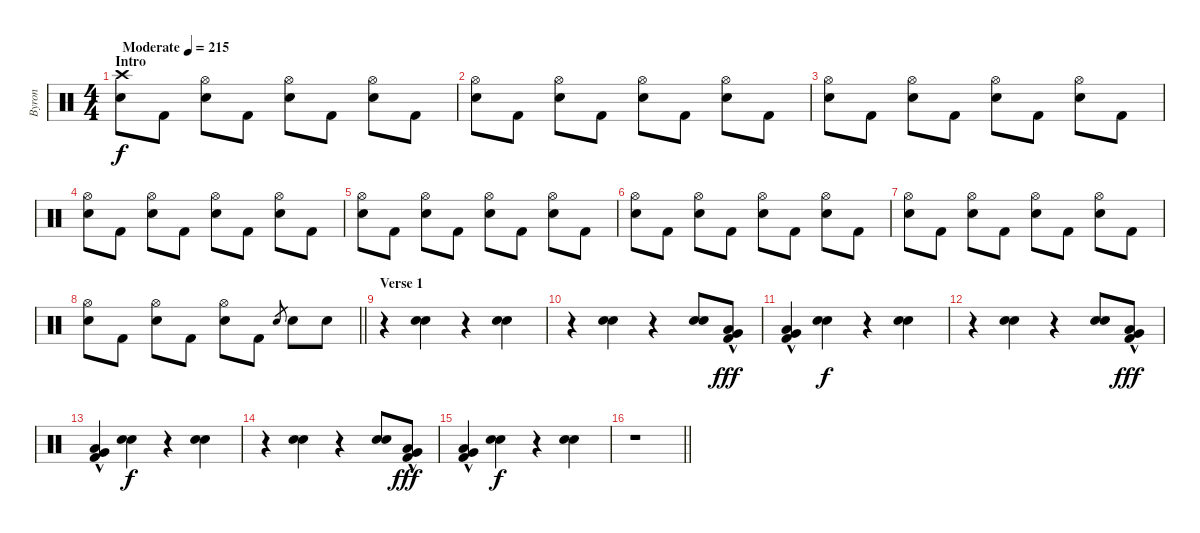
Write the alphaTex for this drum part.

\track ("Byron" "Byron") {instrument percussion}
\staff {score}
\articulation defaults
\ts (4 4)
\section ("" "Intro")
\tempo (215 "Moderate")
\clef neutral
\ks c
("Crash high (hit)" "Electric Snare (hit)").8{dy f} "Kick (hit) 2".8 ("Hi-Hat (open)" "Electric Snare (hit)").8 "Kick (hit) 2".8 ("Hi-Hat (open)" "Electric Snare (hit)").8 "Kick (hit) 2".8 ("Hi-Hat (open)" "Electric Snare (hit)").8 "Kick (hit) 2".8 |
("Hi-Hat (open)" "Electric Snare (hit)").8 "Kick (hit) 2".8 ("Hi-Hat (open)" "Electric Snare (hit)").8 "Kick (hit) 2".8 ("Hi-Hat (open)" "Electric Snare (hit)").8 "Kick (hit) 2".8 ("Hi-Hat (open)" "Electric Snare (hit)").8 "Kick (hit) 2".8 |
("Hi-Hat (open)" "Electric Snare (hit)").8 "Kick (hit) 2".8 ("Hi-Hat (open)" "Electric Snare (hit)").8 "Kick (hit) 2".8 ("Hi-Hat (open)" "Electric Snare (hit)").8 "Kick (hit) 2".8 ("Hi-Hat (open)" "Electric Snare (hit)").8 "Kick (hit) 2".8 |
("Hi-Hat (open)" "Electric Snare (hit)").8 "Kick (hit) 2".8 ("Hi-Hat (open)" "Electric Snare (hit)").8 "Kick (hit) 2".8 ("Hi-Hat (open)" "Electric Snare (hit)").8 "Kick (hit) 2".8 ("Hi-Hat (open)" "Electric Snare (hit)").8 "Kick (hit) 2".8 |
("Hi-Hat (open)" "Electric Snare (hit)").8 "Kick (hit) 2".8 ("Hi-Hat (open)" "Electric Snare (hit)").8 "Kick (hit) 2".8 ("Hi-Hat (open)" "Electric Snare (hit)").8 "Kick (hit) 2".8 ("Hi-Hat (open)" "Electric Snare (hit)").8 "Kick (hit) 2".8 |
("Hi-Hat (open)" "Electric Snare (hit)").8 "Kick (hit) 2".8 ("Hi-Hat (open)" "Electric Snare (hit)").8 "Kick (hit) 2".8 ("Hi-Hat (open)" "Electric Snare (hit)").8 "Kick (hit) 2".8 ("Hi-Hat (open)" "Electric Snare (hit)").8 "Kick (hit) 2".8 |
("Hi-Hat (open)" "Electric Snare (hit)").8 "Kick (hit) 2".8 ("Hi-Hat (open)" "Electric Snare (hit)").8 "Kick (hit) 2".8 ("Hi-Hat (open)" "Electric Snare (hit)").8 "Kick (hit) 2".8 ("Hi-Hat (open)" "Electric Snare (hit)").8 "Kick (hit) 2".8 |
\barLineRight lightlight
("Hi-Hat (open)" "Electric Snare (hit)").8 "Kick (hit) 2".8 ("Hi-Hat (open)" "Electric Snare (hit)").8 "Kick (hit) 2".8 ("Hi-Hat (open)" "Electric Snare (hit)").8 "Kick (hit) 2".8 "Electric Snare (hit)".8{gr} "Electric Snare (hit)".8 "Electric Snare (hit)".8 |
\section ("" "Verse 1")
r.4 ("Electric Snare (hit)" "Electric Snare (hit)").4 r.4 ("Electric Snare (hit)" "Electric Snare (hit)").4 |
r.4 ("Electric Snare (hit)" "Electric Snare (hit)").4 r.4 ("Electric Snare (hit)" "Electric Snare (hit)").8 ("Low Tom (hit)"{hac} "Very Low Tom (hit)"{hac} "Kick (hit) 2"{hac}).8{dy fff} |
("Low Tom (hit)"{hac} "Very Low Tom (hit)"{hac} "Kick (hit) 2"{hac}).4 ("Electric Snare (hit)" "Electric Snare (hit)").4{dy f} r.4 ("Electric Snare (hit)" "Electric Snare (hit)").4 |
r.4 ("Electric Snare (hit)" "Electric Snare (hit)").4 r.4 ("Electric Snare (hit)" "Electric Snare (hit)").8 ("Low Tom (hit)"{hac} "Very Low Tom (hit)"{hac} "Kick (hit) 2"{hac}).8{dy fff} |
("Low Tom (hit)"{hac} "Very Low Tom (hit)"{hac} "Kick (hit) 2"{hac}).4 ("Electric Snare (hit)" "Electric Snare (hit)").4{dy f} r.4 ("Electric Snare (hit)" "Electric Snare (hit)").4 |
r.4 ("Electric Snare (hit)" "Electric Snare (hit)").4 r.4 ("Electric Snare (hit)" "Electric Snare (hit)").8 ("Low Tom (hit)"{hac} "Very Low Tom (hit)"{hac} "Kick (hit) 2"{hac}).8{dy fff} |
("Low Tom (hit)"{hac} "Very Low Tom (hit)"{hac} "Kick (hit) 2"{hac}).4 ("Electric Snare (hit)" "Electric Snare (hit)").4{dy f} r.4 ("Electric Snare (hit)" "Electric Snare (hit)").4 |
\barLineRight lightlight
r.1
